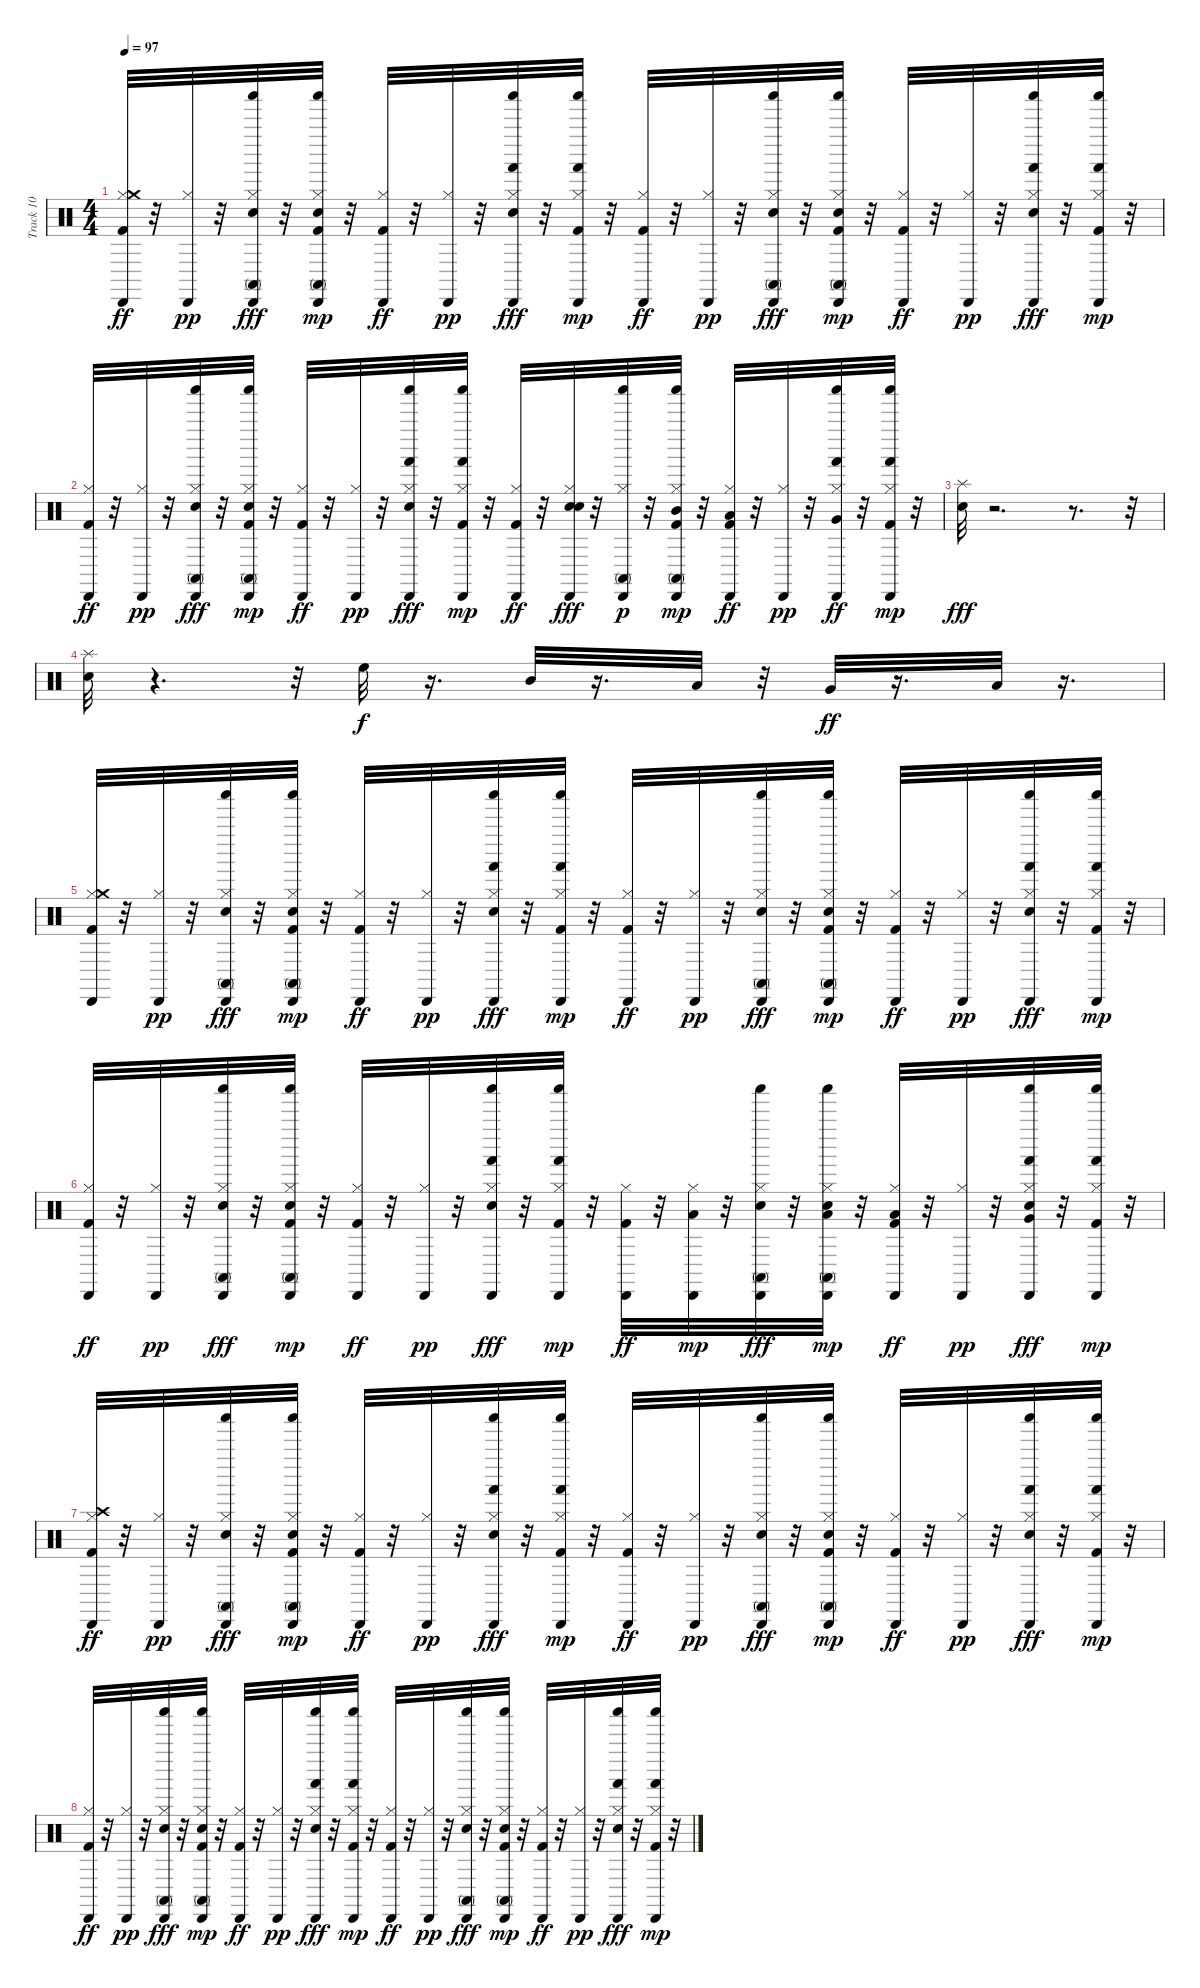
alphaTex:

\track ("Track 10" "Track 10") {instrument percussion}
\staff {score}
\articulation defaults
\ts (4 4)
\tempo 97
\clef neutral
\ks c
("Hi-Hat (closed)" "Cabasa (hit)" "Crash medium (hit)" "Kick (hit) 2").32{dy ff} r.32 ("Hi-Hat (closed)" "Cabasa (hit)").32{dy pp} r.32 ("Hi-Hat (closed)" "Shaker (hit)" "Conga high (mute)" "Cabasa (hit)" "Snare (hit) 2").32{dy fff} r.32 ("Hi-Hat (closed)" "Shaker (hit)" "Conga high (mute)" "Cabasa (hit)" "Snare (hit) 2" "Kick (hit) 2").32{dy mp} r.32 ("Hi-Hat (closed)" "Cabasa (hit)" "Kick (hit) 2").32{dy ff} r.32 ("Hi-Hat (closed)" "Cabasa (hit)").32{dy pp} r.32 ("Hi-Hat (closed)" "Shaker (hit)" "Hand (hit)" "Cabasa (hit)" "Snare (hit) 2").32{dy fff} r.32 ("Hi-Hat (closed)" "Shaker (hit)" "Hand (hit)" "Cabasa (hit)" "Kick (hit) 2").32{dy mp} r.32 ("Hi-Hat (closed)" "Cabasa (hit)" "Kick (hit) 2").32{dy ff} r.32 ("Hi-Hat (closed)" "Cabasa (hit)").32{dy pp} r.32 ("Hi-Hat (closed)" "Shaker (hit)" "Conga high (mute)" "Cabasa (hit)" "Snare (hit) 2").32{dy fff} r.32 ("Hi-Hat (closed)" "Shaker (hit)" "Conga high (mute)" "Cabasa (hit)" "Kick (hit) 2" "Snare (hit) 2").32{dy mp} r.32 ("Hi-Hat (closed)" "Cabasa (hit)" "Kick (hit) 2").32{dy ff} r.32 ("Hi-Hat (closed)" "Cabasa (hit)").32{dy pp} r.32 ("Hi-Hat (closed)" "Shaker (hit)" "Hand (hit)" "Cabasa (hit)" "Snare (hit) 2").32{dy fff} r.32 ("Hi-Hat (closed)" "Shaker (hit)" "Hand (hit)" "Cabasa (hit)" "Kick (hit) 2").32{dy mp} r.32 |
("Hi-Hat (closed)" "Cabasa (hit)" "Kick (hit) 2").32{dy ff} r.32 ("Hi-Hat (closed)" "Cabasa (hit)").32{dy pp} r.32 ("Hi-Hat (closed)" "Shaker (hit)" "Conga high (mute)" "Cabasa (hit)" "Snare (hit) 2").32{dy fff} r.32 ("Hi-Hat (closed)" "Shaker (hit)" "Conga high (mute)" "Cabasa (hit)" "Kick (hit) 2" "Snare (hit) 2").32{dy mp} r.32 ("Hi-Hat (closed)" "Cabasa (hit)" "Kick (hit) 2").32{dy ff} r.32 ("Hi-Hat (closed)" "Cabasa (hit)").32{dy pp} r.32 ("Hi-Hat (closed)" "Shaker (hit)" "Hand (hit)" "Cabasa (hit)" "Snare (hit) 2").32{dy fff} r.32 ("Hi-Hat (closed)" "Shaker (hit)" "Hand (hit)" "Cabasa (hit)" "Kick (hit) 2").32{dy mp} r.32 ("Hi-Hat (closed)" "Cabasa (hit)" "Kick (hit) 2").32{dy ff} r.32 ("Hi-Hat (closed)" "Cabasa (hit)" "Electric Snare (hit)" "Electric Snare (hit)").32{dy fff} r.32 ("Hi-Hat (closed)" "Shaker (hit)" "Conga high (mute)" "Cabasa (hit)").32{dy p} r.32 ("Hi-Hat (closed)" "Shaker (hit)" "Conga high (mute)" "Cabasa (hit)" "Mid Tom (hit)" "Kick (hit) 2").32{dy mp} r.32 ("Hi-Hat (closed)" "Cabasa (hit)" "Low Tom (hit)" "Kick (hit) 2").32{dy ff} r.32 ("Hi-Hat (closed)" "Cabasa (hit)").32{dy pp} r.32 ("Hi-Hat (closed)" "Shaker (hit)" "Hand (hit)" "Cabasa (hit)" "Very Low Tom (hit)").32{dy ff} r.32 ("Hi-Hat (closed)" "Shaker (hit)" "Hand (hit)" "Cabasa (hit)" "Kick (hit) 2").32{dy mp} r.32 |
("Splash (hit)" "Snare (hit) 2").32{dy fff} r.2{d} r.8{d} r.32 |
("Splash (hit)" "Snare (hit) 2").32 r.4{d} r.32 "High Floor Tom (hit)".32{dy f} r.16{d} "Mid Tom (hit)".32 r.16{d} "Low Tom (hit)".32 r.32 "Very Low Tom (hit)".32{dy ff} r.16{d} "Low Floor Tom (hit)".32 r.16{d} |
("Hi-Hat (closed)" "Cabasa (hit)" "Crash medium (hit)" "Kick (hit) 2").32 r.32 ("Hi-Hat (closed)" "Cabasa (hit)").32{dy pp} r.32 ("Hi-Hat (closed)" "Shaker (hit)" "Conga high (mute)" "Cabasa (hit)" "Snare (hit) 2").32{dy fff} r.32 ("Hi-Hat (closed)" "Shaker (hit)" "Conga high (mute)" "Cabasa (hit)" "Kick (hit) 2" "Snare (hit) 2").32{dy mp} r.32 ("Hi-Hat (closed)" "Cabasa (hit)" "Kick (hit) 2").32{dy ff} r.32 ("Hi-Hat (closed)" "Cabasa (hit)").32{dy pp} r.32 ("Hi-Hat (closed)" "Shaker (hit)" "Hand (hit)" "Cabasa (hit)" "Snare (hit) 2").32{dy fff} r.32 ("Hi-Hat (closed)" "Shaker (hit)" "Hand (hit)" "Cabasa (hit)" "Kick (hit) 2").32{dy mp} r.32 ("Hi-Hat (closed)" "Cabasa (hit)" "Kick (hit) 2").32{dy ff} r.32 ("Hi-Hat (closed)" "Cabasa (hit)").32{dy pp} r.32 ("Hi-Hat (closed)" "Shaker (hit)" "Conga high (mute)" "Cabasa (hit)" "Snare (hit) 2").32{dy fff} r.32 ("Hi-Hat (closed)" "Shaker (hit)" "Conga high (mute)" "Cabasa (hit)" "Kick (hit) 2" "Snare (hit) 2").32{dy mp} r.32 ("Hi-Hat (closed)" "Cabasa (hit)" "Kick (hit) 2").32{dy ff} r.32 ("Hi-Hat (closed)" "Cabasa (hit)").32{dy pp} r.32 ("Hi-Hat (closed)" "Shaker (hit)" "Hand (hit)" "Cabasa (hit)" "Snare (hit) 2").32{dy fff} r.32 ("Hi-Hat (closed)" "Shaker (hit)" "Hand (hit)" "Cabasa (hit)" "Kick (hit) 2").32{dy mp} r.32 |
("Hi-Hat (closed)" "Cabasa (hit)" "Kick (hit) 2").32{dy ff} r.32 ("Hi-Hat (closed)" "Cabasa (hit)").32{dy pp} r.32 ("Hi-Hat (closed)" "Shaker (hit)" "Conga high (mute)" "Cabasa (hit)" "Snare (hit) 2").32{dy fff} r.32 ("Hi-Hat (closed)" "Shaker (hit)" "Conga high (mute)" "Cabasa (hit)" "Kick (hit) 2" "Snare (hit) 2").32{dy mp} r.32 ("Hi-Hat (closed)" "Cabasa (hit)" "Kick (hit) 2").32{dy ff} r.32 ("Hi-Hat (closed)" "Cabasa (hit)").32{dy pp} r.32 ("Hi-Hat (closed)" "Shaker (hit)" "Hand (hit)" "Cabasa (hit)" "Snare (hit) 2").32{dy fff} r.32 ("Hi-Hat (closed)" "Shaker (hit)" "Hand (hit)" "Cabasa (hit)" "Kick (hit) 2").32{dy mp} r.32 ("Hi-Hat (closed)" "Cabasa (hit)" "Kick (hit) 2").32{dy ff} r.32 ("Hi-Hat (closed)" "Cabasa (hit)" "Low Tom (hit)").32{dy mp} r.32 ("Hi-Hat (closed)" "Shaker (hit)" "Conga high (mute)" "Cabasa (hit)" "Snare (hit) 2").32{dy fff} r.32 ("Hi-Hat (closed)" "Shaker (hit)" "Conga high (mute)" "Cabasa (hit)" "Low Tom (hit)" "Snare (hit) 2").32{dy mp} r.32 ("Hi-Hat (closed)" "Cabasa (hit)" "Low Tom (hit)" "Kick (hit) 2").32{dy ff} r.32 ("Hi-Hat (closed)" "Cabasa (hit)").32{dy pp} r.32 ("Hi-Hat (closed)" "Shaker (hit)" "Hand (hit)" "Cabasa (hit)" "Very Low Tom (hit)" "Snare (hit) 2").32{dy fff} r.32 ("Hi-Hat (closed)" "Shaker (hit)" "Hand (hit)" "Cabasa (hit)" "Kick (hit) 2").32{dy mp} r.32 |
("Hi-Hat (closed)" "Cabasa (hit)" "Crash high (hit)" "Kick (hit) 2").32{dy ff} r.32 ("Hi-Hat (closed)" "Cabasa (hit)").32{dy pp} r.32 ("Hi-Hat (closed)" "Shaker (hit)" "Conga high (mute)" "Cabasa (hit)" "Snare (hit) 2").32{dy fff} r.32 ("Hi-Hat (closed)" "Shaker (hit)" "Conga high (mute)" "Cabasa (hit)" "Kick (hit) 2" "Snare (hit) 2").32{dy mp} r.32 ("Hi-Hat (closed)" "Cabasa (hit)" "Kick (hit) 2").32{dy ff} r.32 ("Hi-Hat (closed)" "Cabasa (hit)").32{dy pp} r.32 ("Hi-Hat (closed)" "Shaker (hit)" "Hand (hit)" "Cabasa (hit)" "Snare (hit) 2").32{dy fff} r.32 ("Hi-Hat (closed)" "Shaker (hit)" "Hand (hit)" "Cabasa (hit)" "Kick (hit) 2").32{dy mp} r.32 ("Hi-Hat (closed)" "Cabasa (hit)" "Kick (hit) 2").32{dy ff} r.32 ("Hi-Hat (closed)" "Cabasa (hit)").32{dy pp} r.32 ("Hi-Hat (closed)" "Shaker (hit)" "Conga high (mute)" "Cabasa (hit)" "Snare (hit) 2").32{dy fff} r.32 ("Hi-Hat (closed)" "Shaker (hit)" "Conga high (mute)" "Cabasa (hit)" "Kick (hit) 2" "Snare (hit) 2").32{dy mp} r.32 ("Hi-Hat (closed)" "Cabasa (hit)" "Kick (hit) 2").32{dy ff} r.32 ("Hi-Hat (closed)" "Cabasa (hit)").32{dy pp} r.32 ("Hi-Hat (closed)" "Shaker (hit)" "Hand (hit)" "Cabasa (hit)" "Snare (hit) 2").32{dy fff} r.32 ("Hi-Hat (closed)" "Shaker (hit)" "Hand (hit)" "Cabasa (hit)" "Kick (hit) 2").32{dy mp} r.32 |
("Hi-Hat (closed)" "Cabasa (hit)" "Kick (hit) 2").32{dy ff} r.32 ("Hi-Hat (closed)" "Cabasa (hit)").32{dy pp} r.32 ("Hi-Hat (closed)" "Shaker (hit)" "Conga high (mute)" "Cabasa (hit)" "Snare (hit) 2").32{dy fff} r.32 ("Hi-Hat (closed)" "Shaker (hit)" "Conga high (mute)" "Cabasa (hit)" "Kick (hit) 2" "Snare (hit) 2").32{dy mp} r.32 ("Hi-Hat (closed)" "Cabasa (hit)" "Kick (hit) 2").32{dy ff} r.32 ("Hi-Hat (closed)" "Cabasa (hit)").32{dy pp} r.32 ("Hi-Hat (closed)" "Shaker (hit)" "Hand (hit)" "Cabasa (hit)" "Snare (hit) 2").32{dy fff} r.32 ("Hi-Hat (closed)" "Shaker (hit)" "Hand (hit)" "Cabasa (hit)" "Kick (hit) 2").32{dy mp} r.32 ("Hi-Hat (closed)" "Cabasa (hit)" "Kick (hit) 2").32{dy ff} r.32 ("Hi-Hat (closed)" "Cabasa (hit)").32{dy pp} r.32 ("Hi-Hat (closed)" "Shaker (hit)" "Conga high (mute)" "Cabasa (hit)" "Snare (hit) 2").32{dy fff} r.32 ("Hi-Hat (closed)" "Shaker (hit)" "Conga high (mute)" "Cabasa (hit)" "Kick (hit) 2" "Snare (hit) 2").32{dy mp} r.32 ("Hi-Hat (closed)" "Cabasa (hit)" "Kick (hit) 2").32{dy ff} r.32 ("Hi-Hat (closed)" "Cabasa (hit)").32{dy pp} r.32 ("Hi-Hat (closed)" "Shaker (hit)" "Hand (hit)" "Cabasa (hit)" "Snare (hit) 2").32{dy fff} r.32 ("Hi-Hat (closed)" "Shaker (hit)" "Hand (hit)" "Cabasa (hit)" "Kick (hit) 2").32{dy mp} r.32
